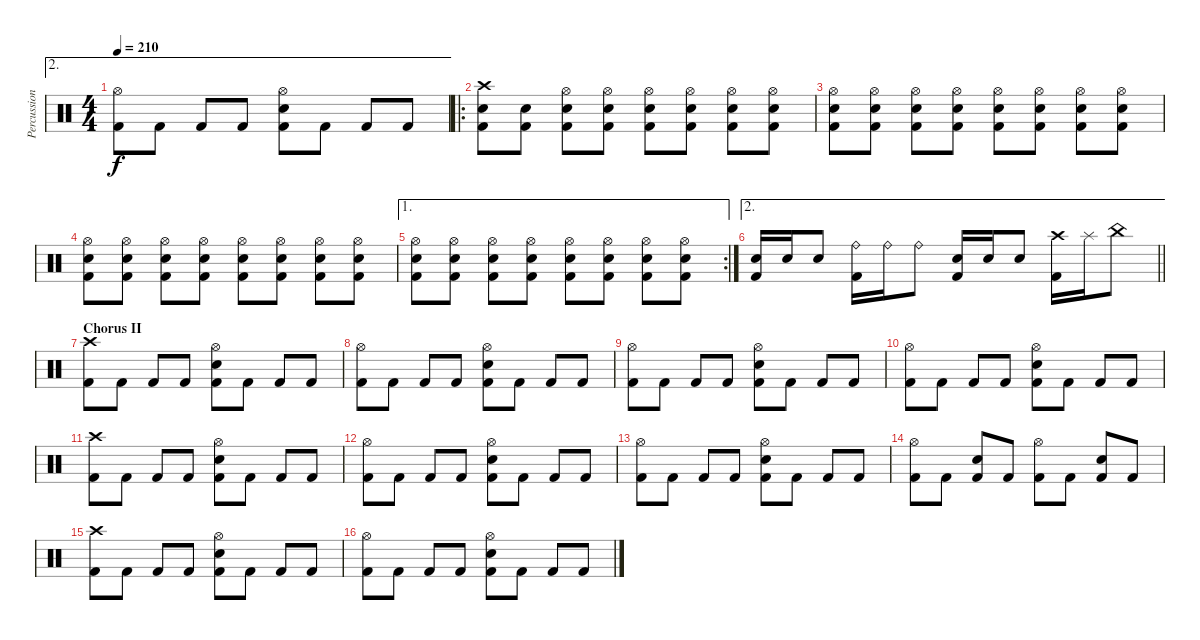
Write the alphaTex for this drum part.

\track ("Percussion" "Percussion") {instrument percussion}
\staff {score}
\articulation defaults
\ae 2
\ts (4 4)
\tempo 210
\clef neutral
\ks c
("Hi-Hat (open)" "Kick (hit) 2").8{dy f} "Kick (hit) 2".8 "Kick (hit) 2".8 "Kick (hit) 2".8 ("Hi-Hat (open)" "Snare (hit) 2" "Kick (hit) 2").8 "Kick (hit) 2".8 "Kick (hit) 2".8 "Kick (hit) 2".8 |
\ro
("Crash high (hit)" "Snare (hit) 2" "Kick (hit) 2").8 ("Snare (hit) 2" "Kick (hit) 2").8 ("Hi-Hat (open)" "Snare (hit) 2" "Kick (hit) 2").8 ("Hi-Hat (open)" "Snare (hit) 2" "Kick (hit) 2").8 ("Hi-Hat (open)" "Snare (hit) 2" "Kick (hit) 2").8 ("Hi-Hat (open)" "Snare (hit) 2" "Kick (hit) 2").8 ("Hi-Hat (open)" "Snare (hit) 2" "Kick (hit) 2").8 ("Hi-Hat (open)" "Snare (hit) 2" "Kick (hit) 2").8 |
("Hi-Hat (open)" "Snare (hit) 2" "Kick (hit) 2").8 ("Hi-Hat (open)" "Snare (hit) 2" "Kick (hit) 2").8 ("Hi-Hat (open)" "Snare (hit) 2" "Kick (hit) 2").8 ("Hi-Hat (open)" "Snare (hit) 2" "Kick (hit) 2").8 ("Hi-Hat (open)" "Snare (hit) 2" "Kick (hit) 2").8 ("Hi-Hat (open)" "Snare (hit) 2" "Kick (hit) 2").8 ("Hi-Hat (open)" "Snare (hit) 2" "Kick (hit) 2").8 ("Hi-Hat (open)" "Snare (hit) 2" "Kick (hit) 2").8 |
("Hi-Hat (open)" "Snare (hit) 2" "Kick (hit) 2").8 ("Hi-Hat (open)" "Snare (hit) 2" "Kick (hit) 2").8 ("Hi-Hat (open)" "Snare (hit) 2" "Kick (hit) 2").8 ("Hi-Hat (open)" "Snare (hit) 2" "Kick (hit) 2").8 ("Hi-Hat (open)" "Snare (hit) 2" "Kick (hit) 2").8 ("Hi-Hat (open)" "Snare (hit) 2" "Kick (hit) 2").8 ("Hi-Hat (open)" "Snare (hit) 2" "Kick (hit) 2").8 ("Hi-Hat (open)" "Snare (hit) 2" "Kick (hit) 2").8 |
\ae 1
\rc 2
("Hi-Hat (open)" "Snare (hit) 2" "Kick (hit) 2").8 ("Hi-Hat (open)" "Snare (hit) 2" "Kick (hit) 2").8 ("Hi-Hat (open)" "Snare (hit) 2" "Kick (hit) 2").8 ("Hi-Hat (open)" "Snare (hit) 2" "Kick (hit) 2").8 ("Hi-Hat (open)" "Snare (hit) 2" "Kick (hit) 2").8 ("Hi-Hat (open)" "Snare (hit) 2" "Kick (hit) 2").8 ("Hi-Hat (open)" "Snare (hit) 2" "Kick (hit) 2").8 ("Hi-Hat (open)" "Snare (hit) 2" "Kick (hit) 2").8 |
\ae 2
\barLineRight lightlight
("Snare (hit) 2" "Kick (hit) 2").16 "Snare (hit) 2".16 "Snare (hit) 2".8 ("Ride (bell)" "Kick (hit) 2").16 "Ride (bell)".16 "Ride (bell)".8 ("Snare (hit) 2" "Kick (hit) 2").16 "Snare (hit) 2".16 "Snare (hit) 2".8 ("Crash high (hit)" "Kick (hit) 2").16 "Splash (hit)".16 "China (hit)".8 |
\section ("" "Chorus II")
("Crash high (hit)" "Kick (hit) 2").8 "Kick (hit) 2".8 "Kick (hit) 2".8 "Kick (hit) 2".8 ("Hi-Hat (open)" "Snare (hit) 2" "Kick (hit) 2").8 "Kick (hit) 2".8 "Kick (hit) 2".8 "Kick (hit) 2".8 |
("Hi-Hat (open)" "Kick (hit) 2").8 "Kick (hit) 2".8 "Kick (hit) 2".8 "Kick (hit) 2".8 ("Hi-Hat (open)" "Snare (hit) 2" "Kick (hit) 2").8 "Kick (hit) 2".8 "Kick (hit) 2".8 "Kick (hit) 2".8 |
("Hi-Hat (open)" "Kick (hit) 2").8 "Kick (hit) 2".8 "Kick (hit) 2".8 "Kick (hit) 2".8 ("Hi-Hat (open)" "Snare (hit) 2" "Kick (hit) 2").8 "Kick (hit) 2".8 "Kick (hit) 2".8 "Kick (hit) 2".8 |
("Hi-Hat (open)" "Kick (hit) 2").8 "Kick (hit) 2".8 "Kick (hit) 2".8 "Kick (hit) 2".8 ("Hi-Hat (open)" "Snare (hit) 2" "Kick (hit) 2").8 "Kick (hit) 2".8 "Kick (hit) 2".8 "Kick (hit) 2".8 |
("Crash high (hit)" "Kick (hit) 2").8 "Kick (hit) 2".8 "Kick (hit) 2".8 "Kick (hit) 2".8 ("Hi-Hat (open)" "Snare (hit) 2" "Kick (hit) 2").8 "Kick (hit) 2".8 "Kick (hit) 2".8 "Kick (hit) 2".8 |
("Hi-Hat (open)" "Kick (hit) 2").8 "Kick (hit) 2".8 "Kick (hit) 2".8 "Kick (hit) 2".8 ("Hi-Hat (open)" "Snare (hit) 2" "Kick (hit) 2").8 "Kick (hit) 2".8 "Kick (hit) 2".8 "Kick (hit) 2".8 |
("Hi-Hat (open)" "Kick (hit) 2").8 "Kick (hit) 2".8 "Kick (hit) 2".8 "Kick (hit) 2".8 ("Hi-Hat (open)" "Snare (hit) 2" "Kick (hit) 2").8 "Kick (hit) 2".8 "Kick (hit) 2".8 "Kick (hit) 2".8 |
("Hi-Hat (open)" "Kick (hit) 2").8 "Kick (hit) 2".8 ("Snare (hit) 2" "Kick (hit) 2").8 "Kick (hit) 2".8 ("Hi-Hat (open)" "Kick (hit) 2").8 "Kick (hit) 2".8 ("Snare (hit) 2" "Kick (hit) 2").8 "Kick (hit) 2".8 |
("Crash high (hit)" "Kick (hit) 2").8 "Kick (hit) 2".8 "Kick (hit) 2".8 "Kick (hit) 2".8 ("Hi-Hat (open)" "Snare (hit) 2" "Kick (hit) 2").8 "Kick (hit) 2".8 "Kick (hit) 2".8 "Kick (hit) 2".8 |
("Hi-Hat (open)" "Kick (hit) 2").8 "Kick (hit) 2".8 "Kick (hit) 2".8 "Kick (hit) 2".8 ("Hi-Hat (open)" "Snare (hit) 2" "Kick (hit) 2").8 "Kick (hit) 2".8 "Kick (hit) 2".8 "Kick (hit) 2".8
